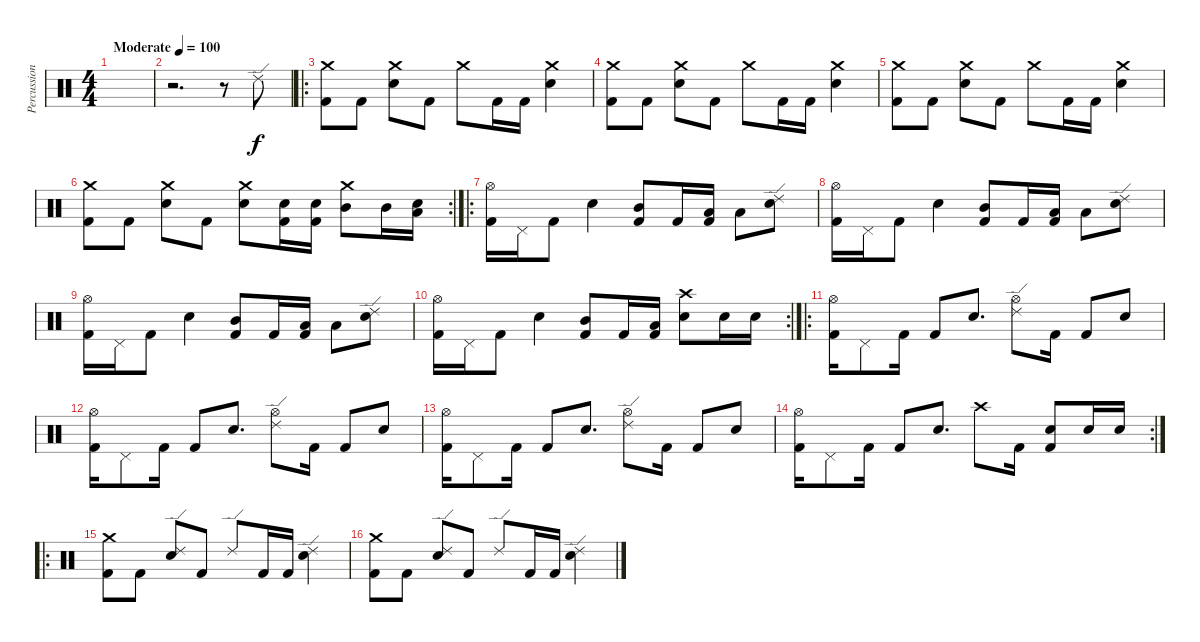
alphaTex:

\track ("Percussion" "Percussion") {instrument percussion}
\staff {score}
\articulation defaults
\ts (4 4)
\tempo (100 "Moderate")
\clef neutral
\ks c
|
r.2{d} r.8 "Ride (edge) 2".8 |
\ro
("Crash medium (hit)" "Kick (hit) 2").8 "Kick (hit) 2".8 ("Crash medium (hit)" "Snare (hit) 2").8 "Kick (hit) 2".8 "Crash medium (hit)".8 "Kick (hit) 2".16 "Kick (hit) 2".16 ("Crash medium (hit)" "Snare (hit) 2").4 |
("Crash medium (hit)" "Kick (hit) 2").8 "Kick (hit) 2".8 ("Crash medium (hit)" "Snare (hit) 2").8 "Kick (hit) 2".8 "Crash medium (hit)".8 "Kick (hit) 2".16 "Kick (hit) 2".16 ("Crash medium (hit)" "Snare (hit) 2").4 |
("Crash medium (hit)" "Kick (hit) 2").8 "Kick (hit) 2".8 ("Crash medium (hit)" "Snare (hit) 2").8 "Kick (hit) 2".8 "Crash medium (hit)".8 "Kick (hit) 2".16 "Kick (hit) 2".16 ("Crash medium (hit)" "Snare (hit) 2").4 |
\rc 2
("Crash medium (hit)" "Kick (hit) 2").8 "Kick (hit) 2".8 ("Crash medium (hit)" "Snare (hit) 2").8 "Kick (hit) 2".8 ("Crash medium (hit)" "Snare (hit) 2").8 ("Snare (hit) 2" "Kick (hit) 2").16 ("Snare (hit) 2" "Kick (hit) 2").16 ("Crash medium (hit)" "Mid Tom (hit)").8 "Mid Tom (hit)".16 ("Low Floor Tom (hit)" "Snare (hit) 2").16 |
\ro
("Hi-Hat (open)" "Kick (hit) 2").16 "Pedal Hi-Hat (hit)".16 "Kick (hit) 2".8 "Snare (hit) 2".4 ("Mid Tom (hit)" "Kick (hit) 2").8 "Kick (hit) 2".16 ("Low Floor Tom (hit)" "Kick (hit) 2").16 "Low Floor Tom (hit)".8 ("Ride (edge) 2" "Snare (hit) 2").8 |
("Hi-Hat (open)" "Kick (hit) 2").16 "Pedal Hi-Hat (hit)".16 "Kick (hit) 2".8 "Snare (hit) 2".4 ("Mid Tom (hit)" "Kick (hit) 2").8 "Kick (hit) 2".16 ("Low Floor Tom (hit)" "Kick (hit) 2").16 "Low Floor Tom (hit)".8 ("Ride (edge) 2" "Snare (hit) 2").8 |
("Hi-Hat (open)" "Kick (hit) 2").16 "Pedal Hi-Hat (hit)".16 "Kick (hit) 2".8 "Snare (hit) 2".4 ("Mid Tom (hit)" "Kick (hit) 2").8 "Kick (hit) 2".16 ("Low Floor Tom (hit)" "Kick (hit) 2").16 "Low Floor Tom (hit)".8 ("Ride (edge) 2" "Snare (hit) 2").8 |
\rc 2
("Hi-Hat (open)" "Kick (hit) 2").16 "Pedal Hi-Hat (hit)".16 "Kick (hit) 2".8 "Snare (hit) 2".4 ("Mid Tom (hit)" "Kick (hit) 2").8 "Kick (hit) 2".16 ("Low Floor Tom (hit)" "Kick (hit) 2").16 ("Crash high (hit)" "Snare (hit) 2").8 "Snare (hit) 2".16 "Snare (hit) 2".16 |
\ro
("Hi-Hat (open)" "Kick (hit) 2").16 "Pedal Hi-Hat (hit)".8 "Kick (hit) 2".16 "Kick (hit) 2".8 "Snare (hit) 2".8{d} ("Ride (edge) 2" "Hi-Hat (open)").8 "Kick (hit) 2".16 "Kick (hit) 2".8 "Snare (hit) 2".8 |
("Hi-Hat (open)" "Kick (hit) 2").16 "Pedal Hi-Hat (hit)".8 "Kick (hit) 2".16 "Kick (hit) 2".8 "Snare (hit) 2".8{d} ("Hi-Hat (open)" "Ride (edge) 2").8 "Kick (hit) 2".16 "Kick (hit) 2".8 "Snare (hit) 2".8 |
("Hi-Hat (open)" "Kick (hit) 2").16 "Pedal Hi-Hat (hit)".8 "Kick (hit) 2".16 "Kick (hit) 2".8 "Snare (hit) 2".8{d} ("Ride (edge) 2" "Hi-Hat (open)").8 "Kick (hit) 2".16 "Kick (hit) 2".8 "Snare (hit) 2".8 |
\rc 2
("Hi-Hat (open)" "Kick (hit) 2").16 "Pedal Hi-Hat (hit)".8 "Kick (hit) 2".16 "Kick (hit) 2".8 "Snare (hit) 2".8{d} "Crash high (hit)".8 "Kick (hit) 2".16 ("Snare (hit) 2" "Kick (hit) 2").8 "Snare (hit) 2".16 "Snare (hit) 2".16 |
\ro
("Crash medium (hit)" "Kick (hit) 2").8 "Kick (hit) 2".8 ("Ride (edge) 2" "Snare (hit) 2").8 "Kick (hit) 2".8 "Ride (edge) 2".8 "Kick (hit) 2".16 "Kick (hit) 2".16 ("Ride (edge) 2" "Snare (hit) 2").4 |
("Crash medium (hit)" "Kick (hit) 2").8 "Kick (hit) 2".8 ("Ride (edge) 2" "Snare (hit) 2").8 "Kick (hit) 2".8 "Ride (edge) 2".8 "Kick (hit) 2".16 "Kick (hit) 2".16 ("Ride (edge) 2" "Snare (hit) 2").4
